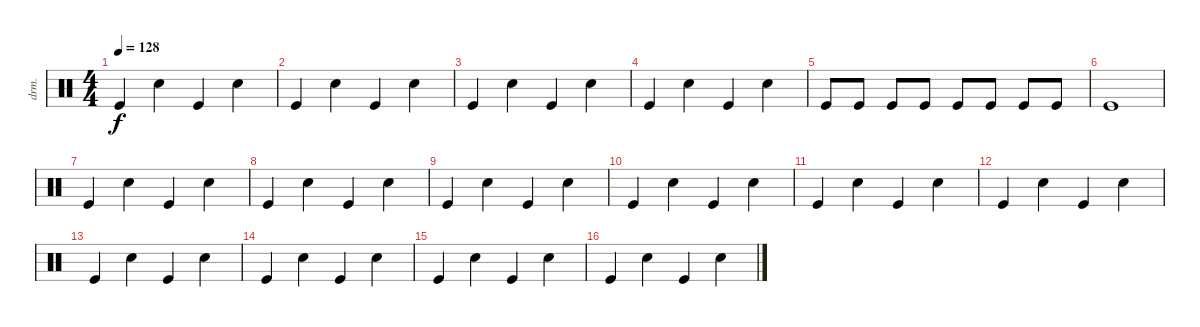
\defaultSystemsLayout 4
\bracketExtendMode groupsimilarinstruments
\otherSystemsTrackNameOrientation horizontal
\track ("Drumkit" "drm.") {instrument percussion}
\staff {score}
\articulation defaults
\ts (4 4)
\tempo 128
\clef neutral
\ks c "Kick (hit)".4{dy f} "Snare (hit) 2".4 "Kick (hit)".4 "Snare (hit) 2".4
|
"Kick (hit)".4 "Snare (hit) 2".4 "Kick (hit)".4 "Snare (hit) 2".4 |
"Kick (hit)".4 "Snare (hit) 2".4 "Kick (hit)".4 "Snare (hit) 2".4 |
"Kick (hit)".4 "Snare (hit) 2".4 "Kick (hit)".4 "Snare (hit) 2".4 |
"Kick (hit)".8 "Kick (hit)".8 "Kick (hit)".8 "Kick (hit)".8 "Kick (hit)".8 "Kick (hit)".8 "Kick (hit)".8 "Kick (hit)".8 |
"Kick (hit)".1 |
"Kick (hit)".4 "Snare (hit) 2".4 "Kick (hit)".4 "Snare (hit) 2".4 |
"Kick (hit)".4 "Snare (hit) 2".4 "Kick (hit)".4 "Snare (hit) 2".4 |
"Kick (hit)".4 "Snare (hit) 2".4 "Kick (hit)".4 "Snare (hit) 2".4 |
"Kick (hit)".4 "Snare (hit) 2".4 "Kick (hit)".4 "Snare (hit) 2".4 |
"Kick (hit)".4 "Snare (hit) 2".4 "Kick (hit)".4 "Snare (hit) 2".4 |
"Kick (hit)".4 "Snare (hit) 2".4 "Kick (hit)".4 "Snare (hit) 2".4 |
"Kick (hit)".4 "Snare (hit) 2".4 "Kick (hit)".4 "Snare (hit) 2".4 |
"Kick (hit)".4 "Snare (hit) 2".4 "Kick (hit)".4 "Snare (hit) 2".4 |
"Kick (hit)".4 "Snare (hit) 2".4 "Kick (hit)".4 "Snare (hit) 2".4 |
"Kick (hit)".4 "Snare (hit) 2".4 "Kick (hit)".4 "Snare (hit) 2".4
